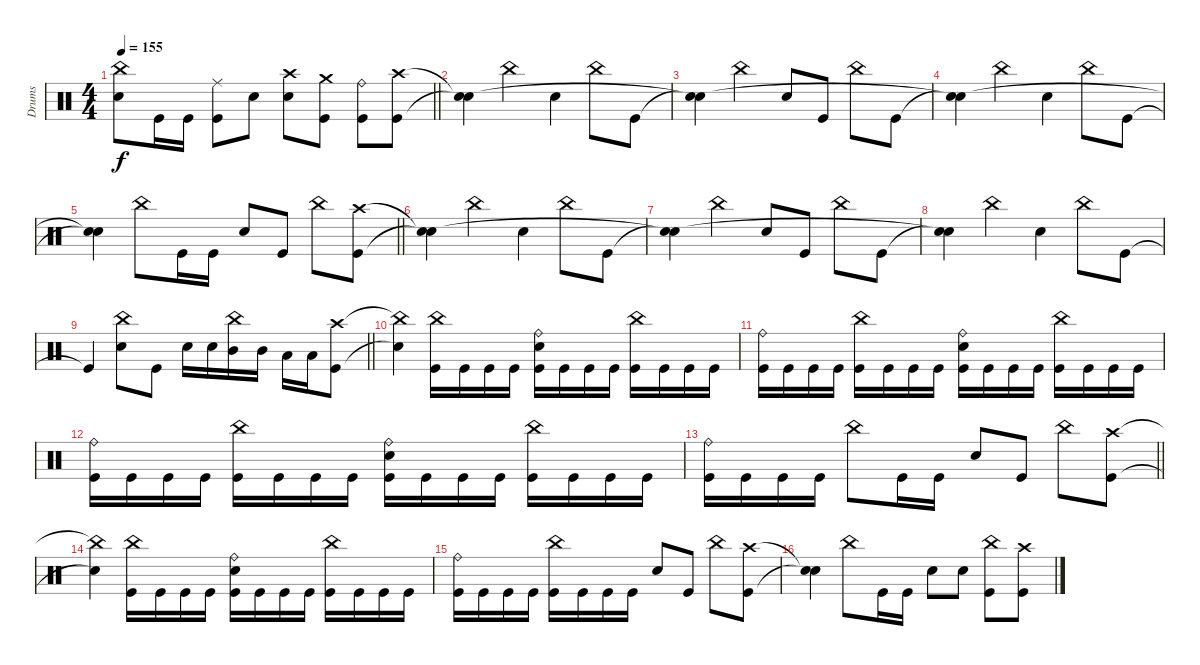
\track ("Drums" "Drums") {instrument percussion}
\staff
\articulation defaults
\ts (4 4)
\tempo 155
\clef neutral
\barLineRight lightlight
\ks c
("China (hit)" "Electric Snare (hit)").8{dy f} "Kick (hit)".16 "Kick (hit)".16 ("Ride (middle)" "Kick (hit)").8 "Electric Snare (hit)".8 ("Crash high (hit)" "Electric Snare (hit)").8 ("Crash medium (hit)" "Kick (hit)").8 ("Ride (bell)" "Kick (hit)").8 ("Crash high (hit)" "Kick (hit)").8 |
\section ("" "")
("Snare (hit)"{t} "Snare (hit)"{t}).4 "China (hit)".4 "Electric Snare (hit)".4 "China (hit)".8 "Kick (hit)".8 |
("Snare (hit)"{t} "Snare (hit)"{t}).4 "China (hit)".4 "Electric Snare (hit)".8 "Kick (hit)".8 "China (hit)".8 "Kick (hit)".8 |
("Snare (hit)"{t} "Snare (hit)"{t}).4 "China (hit)".4 "Electric Snare (hit)".4 "China (hit)".8 "Kick (hit)".8 |
\barLineRight lightlight
("Snare (hit)"{t} "Snare (hit)"{t}).4 "China (hit)".8 "Kick (hit)".16 "Kick (hit)".16 "Electric Snare (hit)".8 "Kick (hit)".8 "China (hit)".8 ("Crash high (hit)" "Kick (hit)").8 |
("Snare (hit)"{t} "Snare (hit)"{t}).4 "China (hit)".4 "Electric Snare (hit)".4 "China (hit)".8 "Kick (hit)".8 |
("Snare (hit)"{t} "Snare (hit)"{t}).4 "China (hit)".4 "Electric Snare (hit)".8 "Kick (hit)".8 "China (hit)".8 "Kick (hit)".8 |
("Snare (hit)"{t} "Snare (hit)"{t}).4 "China (hit)".4 "Electric Snare (hit)".4 "China (hit)".8 "Kick (hit)".8 |
\barLineRight lightlight "Kick (hit)"{t}.4
("China (hit)" "Electric Snare (hit)").8 "Kick (hit)".8 "Electric Snare (hit)".16 "Electric Snare (hit)".16 ("China (hit)" "Mid Tom (hit)").16 "Mid Tom (hit)".16 "Low Tom (hit)".16 "Low Tom (hit)".16 ("Crash high (hit)" "Kick (hit)").8 |
("China (hit)"{t} "Snare (hit)"{t}).4 ("China (hit)" "Kick (hit)").16 "Kick (hit)".16 "Kick (hit)".16 "Kick (hit)".16 ("Ride (bell)" "Electric Snare (hit)" "Kick (hit)").16 "Kick (hit)".16 "Kick (hit)".16 "Kick (hit)".16 ("China (hit)" "Kick (hit)").16 "Kick (hit)".16 "Kick (hit)".16 "Kick (hit)".16 |
("Ride (bell)" "Kick (hit)").16 "Kick (hit)".16 "Kick (hit)".16 "Kick (hit)".16 ("China (hit)" "Kick (hit)").16 "Kick (hit)".16 "Kick (hit)".16 "Kick (hit)".16 ("Ride (bell)" "Electric Snare (hit)" "Kick (hit)").16 "Kick (hit)".16 "Kick (hit)".16 "Kick (hit)".16 ("China (hit)" "Kick (hit)").16 "Kick (hit)".16 "Kick (hit)".16 "Kick (hit)".16 |
("Ride (bell)" "Kick (hit)").16 "Kick (hit)".16 "Kick (hit)".16 "Kick (hit)".16 ("China (hit)" "Kick (hit)").16 "Kick (hit)".16 "Kick (hit)".16 "Kick (hit)".16 ("Ride (bell)" "Electric Snare (hit)" "Kick (hit)").16 "Kick (hit)".16 "Kick (hit)".16 "Kick (hit)".16 ("China (hit)" "Kick (hit)").16 "Kick (hit)".16 "Kick (hit)".16 "Kick (hit)".16 |
\barLineRight lightlight
("Ride (bell)" "Kick (hit)").16 "Kick (hit)".16 "Kick (hit)".16 "Kick (hit)".16 "China (hit)".8 "Kick (hit)".16 "Kick (hit)".16 "Electric Snare (hit)".8 "Kick (hit)".8 "China (hit)".8 ("Crash high (hit)" "Kick (hit)").8 |
("China (hit)"{t} "Snare (hit)"{t}).4 ("China (hit)" "Kick (hit)").16 "Kick (hit)".16 "Kick (hit)".16 "Kick (hit)".16 ("Ride (bell)" "Electric Snare (hit)" "Kick (hit)").16 "Kick (hit)".16 "Kick (hit)".16 "Kick (hit)".16 ("China (hit)" "Kick (hit)").16 "Kick (hit)".16 "Kick (hit)".16 "Kick (hit)".16 |
("Ride (bell)" "Kick (hit)").16 "Kick (hit)".16 "Kick (hit)".16 "Kick (hit)".16 ("China (hit)" "Kick (hit)").16 "Kick (hit)".16 "Kick (hit)".16 "Kick (hit)".16 "Electric Snare (hit)".8 "Kick (hit)".8 "China (hit)".8 ("Crash high (hit)" "Kick (hit)").8 |
("Snare (hit)"{t} "Snare (hit)"{t}).4 "China (hit)".8 "Kick (hit)".16 "Kick (hit)".16 "Electric Snare (hit)".8 "Electric Snare (hit)".8 ("China (hit)" "Kick (hit)").8 ("Crash high (hit)" "Kick (hit)").8
